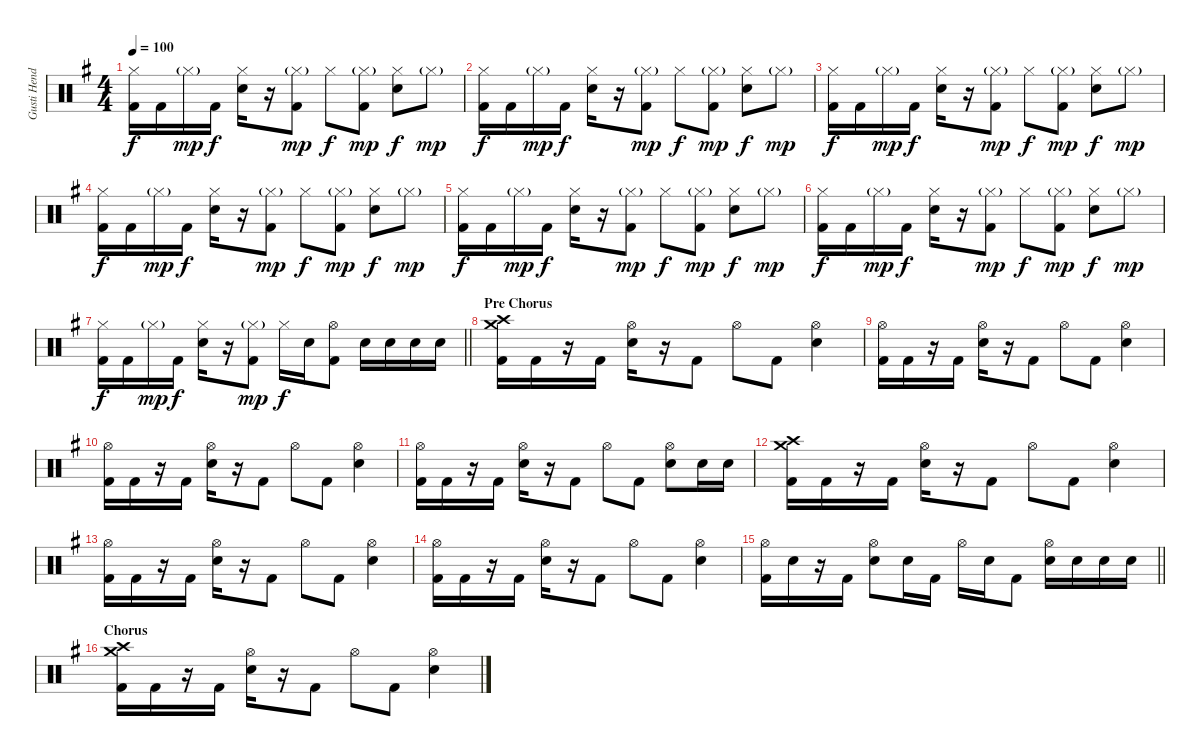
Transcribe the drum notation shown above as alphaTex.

\track ("Gusti Hendy" "Gusti Hend") {instrument percussion}
\staff {score}
\articulation defaults
\ts (4 4)
\tempo 100
\clef neutral
\ks g
("Hi-Hat (closed)" "Kick (hit) 2").16{dy f} "Kick (hit) 2".16 "Hi-Hat (closed)"{g}.16{dy mp} "Kick (hit) 2".16{dy f} ("Hi-Hat (closed)" "Electric Snare (hit)").16 r.16 ("Hi-Hat (closed)"{g} "Kick (hit) 2").8{dy mp} "Hi-Hat (closed)".8{dy f} ("Hi-Hat (closed)"{g} "Kick (hit) 2").8{dy mp} ("Hi-Hat (closed)" "Electric Snare (hit)").8{dy f} "Hi-Hat (closed)"{g}.8{dy mp} |
("Hi-Hat (closed)" "Kick (hit) 2").16{dy f} "Kick (hit) 2".16 "Hi-Hat (closed)"{g}.16{dy mp} "Kick (hit) 2".16{dy f} ("Hi-Hat (closed)" "Electric Snare (hit)").16 r.16 ("Hi-Hat (closed)"{g} "Kick (hit) 2").8{dy mp} "Hi-Hat (closed)".8{dy f} ("Hi-Hat (closed)"{g} "Kick (hit) 2").8{dy mp} ("Hi-Hat (closed)" "Electric Snare (hit)").8{dy f} "Hi-Hat (closed)"{g}.8{dy mp} |
("Hi-Hat (closed)" "Kick (hit) 2").16{dy f} "Kick (hit) 2".16 "Hi-Hat (closed)"{g}.16{dy mp} "Kick (hit) 2".16{dy f} ("Hi-Hat (closed)" "Electric Snare (hit)").16 r.16 ("Hi-Hat (closed)"{g} "Kick (hit) 2").8{dy mp} "Hi-Hat (closed)".8{dy f} ("Hi-Hat (closed)"{g} "Kick (hit) 2").8{dy mp} ("Hi-Hat (closed)" "Electric Snare (hit)").8{dy f} "Hi-Hat (closed)"{g}.8{dy mp} |
("Hi-Hat (closed)" "Kick (hit) 2").16{dy f} "Kick (hit) 2".16 "Hi-Hat (closed)"{g}.16{dy mp} "Kick (hit) 2".16{dy f} ("Hi-Hat (closed)" "Electric Snare (hit)").16 r.16 ("Hi-Hat (closed)"{g} "Kick (hit) 2").8{dy mp} "Hi-Hat (closed)".8{dy f} ("Hi-Hat (closed)"{g} "Kick (hit) 2").8{dy mp} ("Hi-Hat (closed)" "Electric Snare (hit)").8{dy f} "Hi-Hat (closed)"{g}.8{dy mp} |
("Hi-Hat (closed)" "Kick (hit) 2").16{dy f} "Kick (hit) 2".16 "Hi-Hat (closed)"{g}.16{dy mp} "Kick (hit) 2".16{dy f} ("Hi-Hat (closed)" "Electric Snare (hit)").16 r.16 ("Hi-Hat (closed)"{g} "Kick (hit) 2").8{dy mp} "Hi-Hat (closed)".8{dy f} ("Hi-Hat (closed)"{g} "Kick (hit) 2").8{dy mp} ("Hi-Hat (closed)" "Electric Snare (hit)").8{dy f} "Hi-Hat (closed)"{g}.8{dy mp} |
("Hi-Hat (closed)" "Kick (hit) 2").16{dy f} "Kick (hit) 2".16 "Hi-Hat (closed)"{g}.16{dy mp} "Kick (hit) 2".16{dy f} ("Hi-Hat (closed)" "Electric Snare (hit)").16 r.16 ("Hi-Hat (closed)"{g} "Kick (hit) 2").8{dy mp} "Hi-Hat (closed)".8{dy f} ("Hi-Hat (closed)"{g} "Kick (hit) 2").8{dy mp} ("Hi-Hat (closed)" "Electric Snare (hit)").8{dy f} "Hi-Hat (closed)"{g}.8{dy mp} |
\barLineRight lightlight
("Hi-Hat (closed)" "Kick (hit) 2").16{dy f} "Kick (hit) 2".16 "Hi-Hat (closed)"{g}.16{dy mp} "Kick (hit) 2".16{dy f} ("Hi-Hat (closed)" "Electric Snare (hit)").16 r.16 ("Hi-Hat (closed)"{g} "Kick (hit) 2").8{dy mp} "Hi-Hat (closed)".16{dy f} "Electric Snare (hit)".16 ("Hi-Hat (open)" "Kick (hit) 2").8 "Electric Snare (hit)".16 "Electric Snare (hit)".16 "Electric Snare (hit)".16 "Electric Snare (hit)".16 |
\section ("" "Pre Chorus")
("Crash high (hit)" "Crash medium (hit)" "Kick (hit) 2").16 "Kick (hit) 2".16 r.16 "Kick (hit) 2".16 ("Hi-Hat (open)" "Electric Snare (hit)").16 r.16 "Kick (hit) 2".8 "Hi-Hat (open)".8 "Kick (hit) 2".8 ("Hi-Hat (open)" "Electric Snare (hit)").4 |
("Hi-Hat (open)" "Kick (hit) 2").16 "Kick (hit) 2".16 r.16 "Kick (hit) 2".16 ("Hi-Hat (open)" "Electric Snare (hit)").16 r.16 "Kick (hit) 2".8 "Hi-Hat (open)".8 "Kick (hit) 2".8 ("Hi-Hat (open)" "Electric Snare (hit)").4 |
("Hi-Hat (open)" "Kick (hit) 2").16 "Kick (hit) 2".16 r.16 "Kick (hit) 2".16 ("Hi-Hat (open)" "Electric Snare (hit)").16 r.16 "Kick (hit) 2".8 "Hi-Hat (open)".8 "Kick (hit) 2".8 ("Hi-Hat (open)" "Electric Snare (hit)").4 |
("Hi-Hat (open)" "Kick (hit) 2").16 "Kick (hit) 2".16 r.16 "Kick (hit) 2".16 ("Hi-Hat (open)" "Electric Snare (hit)").16 r.16 "Kick (hit) 2".8 "Hi-Hat (open)".8 "Kick (hit) 2".8 ("Hi-Hat (open)" "Electric Snare (hit)").8 "Electric Snare (hit)".16 "Electric Snare (hit)".16 |
("Crash high (hit)" "Crash medium (hit)" "Kick (hit) 2").16 "Kick (hit) 2".16 r.16 "Kick (hit) 2".16 ("Hi-Hat (open)" "Electric Snare (hit)").16 r.16 "Kick (hit) 2".8 "Hi-Hat (open)".8 "Kick (hit) 2".8 ("Hi-Hat (open)" "Electric Snare (hit)").4 |
("Hi-Hat (open)" "Kick (hit) 2").16 "Kick (hit) 2".16 r.16 "Kick (hit) 2".16 ("Hi-Hat (open)" "Electric Snare (hit)").16 r.16 "Kick (hit) 2".8 "Hi-Hat (open)".8 "Kick (hit) 2".8 ("Hi-Hat (open)" "Electric Snare (hit)").4 |
("Hi-Hat (open)" "Kick (hit) 2").16 "Kick (hit) 2".16 r.16 "Kick (hit) 2".16 ("Hi-Hat (open)" "Electric Snare (hit)").16 r.16 "Kick (hit) 2".8 "Hi-Hat (open)".8 "Kick (hit) 2".8 ("Hi-Hat (open)" "Electric Snare (hit)").4 |
\barLineRight lightlight
("Hi-Hat (open)" "Kick (hit) 2").16 "Electric Snare (hit)".16 r.16 "Kick (hit) 2".16 ("Hi-Hat (open)" "Electric Snare (hit)").8 "Electric Snare (hit)".16 "Kick (hit) 2".16 "Hi-Hat (open)".16 "Electric Snare (hit)".16 "Kick (hit) 2".8 ("Hi-Hat (open)" "Electric Snare (hit)").16 "Electric Snare (hit)".16 "Electric Snare (hit)".16 "Electric Snare (hit)".16 |
\section ("" "Chorus")
("Crash high (hit)" "Crash medium (hit)" "Kick (hit) 2").16 "Kick (hit) 2".16 r.16 "Kick (hit) 2".16 ("Hi-Hat (open)" "Electric Snare (hit)").16 r.16 "Kick (hit) 2".8 "Hi-Hat (open)".8 "Kick (hit) 2".8 ("Hi-Hat (open)" "Electric Snare (hit)").4
